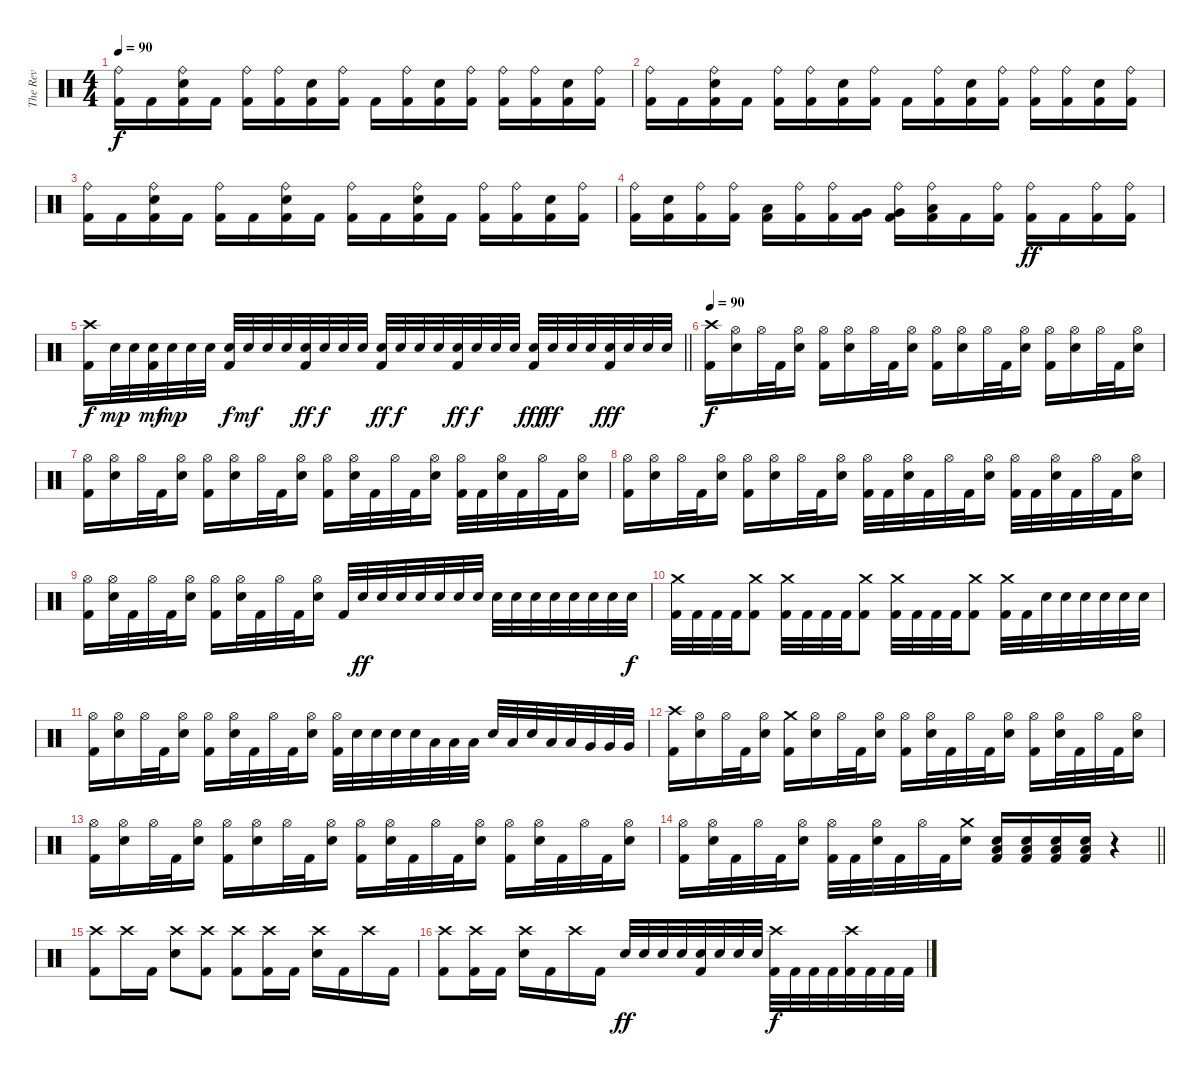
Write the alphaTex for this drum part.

\track ("The Rev" "The Rev") {instrument percussion}
\staff {score}
\articulation defaults
\ts (4 4)
\tempo 90
\clef neutral
\ks c
("Ride (bell)" "Kick (hit) 2").16{dy f} "Kick (hit) 2".16 ("Ride (bell)" "Electric Snare (hit)" "Kick (hit) 2").16 "Kick (hit) 2".16 ("Ride (bell)" "Kick (hit) 2").16 ("Ride (bell)" "Kick (hit) 2").16 ("Electric Snare (hit)" "Kick (hit) 2").16 ("Ride (bell)" "Kick (hit) 2").16 "Kick (hit) 2".16 ("Ride (bell)" "Kick (hit) 2").16 ("Electric Snare (hit)" "Kick (hit) 2").16 ("Ride (bell)" "Kick (hit) 2").16 ("Ride (bell)" "Kick (hit) 2").16 ("Ride (bell)" "Kick (hit) 2").16 ("Electric Snare (hit)" "Kick (hit) 2").16 ("Ride (bell)" "Kick (hit) 2").16 |
("Ride (bell)" "Kick (hit) 2").16 "Kick (hit) 2".16 ("Ride (bell)" "Electric Snare (hit)" "Kick (hit) 2").16 "Kick (hit) 2".16 ("Ride (bell)" "Kick (hit) 2").16 ("Ride (bell)" "Kick (hit) 2").16 ("Electric Snare (hit)" "Kick (hit) 2").16 ("Ride (bell)" "Kick (hit) 2").16 "Kick (hit) 2".16 ("Ride (bell)" "Kick (hit) 2").16 ("Electric Snare (hit)" "Kick (hit) 2").16 ("Ride (bell)" "Kick (hit) 2").16 ("Ride (bell)" "Kick (hit) 2").16 ("Ride (bell)" "Kick (hit) 2").16 ("Electric Snare (hit)" "Kick (hit) 2").16 ("Ride (bell)" "Kick (hit) 2").16 |
("Ride (bell)" "Kick (hit) 2").16 "Kick (hit) 2".16 ("Ride (bell)" "Electric Snare (hit)" "Kick (hit) 2").16 "Kick (hit) 2".16 ("Ride (bell)" "Kick (hit) 2").16 "Kick (hit) 2".16 ("Ride (bell)" "Electric Snare (hit)" "Kick (hit) 2").16 "Kick (hit) 2".16 ("Ride (bell)" "Kick (hit) 2").16 "Kick (hit) 2".16 ("Ride (bell)" "Electric Snare (hit)" "Kick (hit) 2").16 "Kick (hit) 2".16 ("Ride (bell)" "Kick (hit) 2").16 ("Ride (bell)" "Kick (hit) 2").16 ("Electric Snare (hit)" "Kick (hit) 2").16 ("Ride (bell)" "Kick (hit) 2").16 |
("Ride (bell)" "Kick (hit) 2").16 ("Electric Snare (hit)" "Kick (hit) 2").16 ("Ride (bell)" "Kick (hit) 2").16 ("Ride (bell)" "Kick (hit) 2").16 ("Low Tom (hit)" "Kick (hit) 2").16 ("Ride (bell)" "Kick (hit) 2").16 ("Ride (bell)" "Kick (hit) 2").16 ("Very Low Tom (hit)" "Kick (hit) 2").16 ("Ride (bell)" "Very Low Tom (hit)" "Kick (hit) 2").16 ("Ride (bell)" "Low Floor Tom (hit)" "Kick (hit) 2").16 "Kick (hit) 2".16 ("Ride (bell)" "Kick (hit) 2").16 ("Ride (bell)" "Kick (hit) 2").16{dy ff} "Kick (hit) 2".16 ("Ride (bell)" "Kick (hit) 2").16 ("Ride (bell)" "Kick (hit) 2").16 |
\barLineRight lightlight
("Crash high (hit)" "Kick (hit) 2").16{dy f} "Electric Snare (hit)".32{dy mp} "Electric Snare (hit)".32 ("Electric Snare (hit)" "Kick (hit) 2").32{dy mf} "Electric Snare (hit)".32{dy mp} "Electric Snare (hit)".32 "Electric Snare (hit)".32 ("Electric Snare (hit)" "Kick (hit) 2").32{dy f} "Electric Snare (hit)".32{dy mf} "Electric Snare (hit)".32 "Electric Snare (hit)".32 ("Electric Snare (hit)" "Kick (hit) 2").32{dy ff} "Electric Snare (hit)".32{dy f} "Electric Snare (hit)".32 "Electric Snare (hit)".32 ("Electric Snare (hit)" "Kick (hit) 2").32{dy ff} "Electric Snare (hit)".32{dy f} "Electric Snare (hit)".32 "Electric Snare (hit)".32 ("Electric Snare (hit)" "Kick (hit) 2").32{dy ff} "Electric Snare (hit)".32{dy f} "Electric Snare (hit)".32 "Electric Snare (hit)".32 ("Electric Snare (hit)" "Kick (hit) 2").32{dy fff} "Electric Snare (hit)".32{dy ff} "Electric Snare (hit)".32 "Electric Snare (hit)".32 ("Electric Snare (hit)" "Kick (hit) 2").32{dy fff} "Electric Snare (hit)".32 "Electric Snare (hit)".32 "Electric Snare (hit)".32 |
\tempo 90
("Crash high (hit)" "Kick (hit) 2").16{dy f} ("Hi-Hat (open)" "Electric Snare (hit)").16 "Hi-Hat (open)".32 "Kick (hit) 2".32 ("Hi-Hat (open)" "Electric Snare (hit)").16 ("Hi-Hat (open)" "Kick (hit) 2").16 ("Hi-Hat (open)" "Electric Snare (hit)").16 "Hi-Hat (open)".32 "Kick (hit) 2".32 ("Hi-Hat (open)" "Electric Snare (hit)").16 ("Hi-Hat (open)" "Kick (hit) 2").16 ("Hi-Hat (open)" "Electric Snare (hit)").16 "Hi-Hat (open)".32 "Kick (hit) 2".32 ("Hi-Hat (open)" "Electric Snare (hit)").16 ("Hi-Hat (open)" "Kick (hit) 2").16 ("Hi-Hat (open)" "Electric Snare (hit)").16 "Hi-Hat (open)".32 "Kick (hit) 2".32 ("Hi-Hat (open)" "Electric Snare (hit)").16 |
("Hi-Hat (open)" "Kick (hit) 2").16 ("Hi-Hat (open)" "Electric Snare (hit)").16 "Hi-Hat (open)".32 "Kick (hit) 2".32 ("Hi-Hat (open)" "Electric Snare (hit)").16 ("Hi-Hat (open)" "Kick (hit) 2").16 ("Hi-Hat (open)" "Electric Snare (hit)").16 "Hi-Hat (open)".32 "Kick (hit) 2".32 ("Hi-Hat (open)" "Electric Snare (hit)").16 ("Hi-Hat (open)" "Kick (hit) 2").16 ("Hi-Hat (open)" "Electric Snare (hit)").32 "Kick (hit) 2".32 "Hi-Hat (open)".32 "Kick (hit) 2".32 ("Hi-Hat (open)" "Electric Snare (hit)").16 ("Hi-Hat (open)" "Kick (hit) 2").32 "Kick (hit) 2".32 ("Hi-Hat (open)" "Electric Snare (hit)").32 "Kick (hit) 2".32 "Hi-Hat (open)".32 "Kick (hit) 2".32 ("Hi-Hat (open)" "Electric Snare (hit)").16 |
("Hi-Hat (open)" "Kick (hit) 2").16 ("Hi-Hat (open)" "Electric Snare (hit)").16 "Hi-Hat (open)".32 "Kick (hit) 2".32 ("Hi-Hat (open)" "Electric Snare (hit)").16 ("Hi-Hat (open)" "Kick (hit) 2").16 ("Hi-Hat (open)" "Electric Snare (hit)").16 "Hi-Hat (open)".32 "Kick (hit) 2".32 ("Hi-Hat (open)" "Electric Snare (hit)").16 ("Hi-Hat (open)" "Kick (hit) 2").32 "Kick (hit) 2".32 ("Hi-Hat (open)" "Electric Snare (hit)").32 "Kick (hit) 2".32 "Hi-Hat (open)".32 "Kick (hit) 2".32 ("Hi-Hat (open)" "Electric Snare (hit)").16 ("Hi-Hat (open)" "Kick (hit) 2").32 "Kick (hit) 2".32 ("Hi-Hat (open)" "Electric Snare (hit)").32 "Kick (hit) 2".32 "Hi-Hat (open)".32 "Kick (hit) 2".32 ("Hi-Hat (open)" "Electric Snare (hit)").16 |
("Hi-Hat (open)" "Kick (hit) 2").16 ("Hi-Hat (open)" "Electric Snare (hit)").32 "Kick (hit) 2".32 "Hi-Hat (open)".32 "Kick (hit) 2".32 ("Hi-Hat (open)" "Electric Snare (hit)").16 ("Hi-Hat (open)" "Kick (hit) 2").16 ("Hi-Hat (open)" "Electric Snare (hit)").32 "Kick (hit) 2".32 "Hi-Hat (open)".32 "Kick (hit) 2".32 ("Hi-Hat (open)" "Electric Snare (hit)").16 "Kick (hit) 2".32 "Electric Snare (hit)".32{dy ff} "Electric Snare (hit)".32 "Electric Snare (hit)".32 "Electric Snare (hit)".32 "Electric Snare (hit)".32 "Electric Snare (hit)".32 "Electric Snare (hit)".32 "Electric Snare (hit)".32 "Electric Snare (hit)".32 "Electric Snare (hit)".32 "Electric Snare (hit)".32 "Electric Snare (hit)".32 "Electric Snare (hit)".32 "Electric Snare (hit)".32 "Electric Snare (hit)".32{dy f} |
("Crash medium (hit)" "Kick (hit) 2").32 "Kick (hit) 2".32 "Kick (hit) 2".32 "Kick (hit) 2".32 ("Crash medium (hit)" "Kick (hit) 2").8 ("Crash medium (hit)" "Kick (hit) 2").32 "Kick (hit) 2".32 "Kick (hit) 2".32 "Kick (hit) 2".32 ("Crash medium (hit)" "Kick (hit) 2").8 ("Crash medium (hit)" "Kick (hit) 2").32 "Kick (hit) 2".32 "Kick (hit) 2".32 "Kick (hit) 2".32 ("Crash medium (hit)" "Kick (hit) 2").8 ("Crash medium (hit)" "Kick (hit) 2").32 "Kick (hit) 2".32 "Electric Snare (hit)".32 "Electric Snare (hit)".32 "Electric Snare (hit)".32 "Electric Snare (hit)".32 "Electric Snare (hit)".32 "Electric Snare (hit)".32 |
("Hi-Hat (open)" "Kick (hit) 2").16 ("Hi-Hat (open)" "Electric Snare (hit)").16 "Hi-Hat (open)".32 "Kick (hit) 2".32 ("Hi-Hat (open)" "Electric Snare (hit)").16 ("Hi-Hat (open)" "Kick (hit) 2").16 ("Hi-Hat (open)" "Electric Snare (hit)").32 "Kick (hit) 2".32 "Hi-Hat (open)".32 "Kick (hit) 2".32 ("Hi-Hat (open)" "Electric Snare (hit)").16 ("Hi-Hat (open)" "Kick (hit) 2").32 "Electric Snare (hit)".32 "Electric Snare (hit)".32 "Electric Snare (hit)".32 "Electric Snare (hit)".32 "Low Tom (hit)".32 "Low Tom (hit)".32 "Low Tom (hit)".32 "Electric Snare (hit)".32 "Low Tom (hit)".32 "Electric Snare (hit)".32 "Low Tom (hit)".32 "Low Tom (hit)".32 "Very Low Tom (hit)".32 "Very Low Tom (hit)".32 "Very Low Tom (hit)".32 |
("Crash high (hit)" "Kick (hit) 2").16 ("Hi-Hat (open)" "Electric Snare (hit)").16 "Hi-Hat (open)".32 "Kick (hit) 2".32 ("Hi-Hat (open)" "Electric Snare (hit)").16 ("Crash medium (hit)" "Kick (hit) 2").16 ("Hi-Hat (open)" "Electric Snare (hit)").16 "Hi-Hat (open)".32 "Kick (hit) 2".32 ("Hi-Hat (open)" "Electric Snare (hit)").16 ("Hi-Hat (open)" "Kick (hit) 2").16 ("Hi-Hat (open)" "Electric Snare (hit)").32 "Kick (hit) 2".32 "Hi-Hat (open)".32 "Kick (hit) 2".32 ("Hi-Hat (open)" "Electric Snare (hit)").16 ("Hi-Hat (open)" "Kick (hit) 2").16 ("Hi-Hat (open)" "Electric Snare (hit)").32 "Kick (hit) 2".32 "Hi-Hat (open)".32 "Kick (hit) 2".32 ("Hi-Hat (open)" "Electric Snare (hit)").16 |
("Hi-Hat (open)" "Kick (hit) 2").16 ("Hi-Hat (open)" "Electric Snare (hit)").16 "Hi-Hat (open)".32 "Kick (hit) 2".32 ("Hi-Hat (open)" "Electric Snare (hit)").16 ("Hi-Hat (open)" "Kick (hit) 2").16 ("Hi-Hat (open)" "Electric Snare (hit)").16 "Hi-Hat (open)".32 "Kick (hit) 2".32 ("Hi-Hat (open)" "Electric Snare (hit)").16 ("Hi-Hat (open)" "Kick (hit) 2").16 ("Hi-Hat (open)" "Electric Snare (hit)").32 "Kick (hit) 2".32 "Hi-Hat (open)".32 "Kick (hit) 2".32 ("Hi-Hat (open)" "Electric Snare (hit)").16 ("Hi-Hat (open)" "Kick (hit) 2").16 ("Hi-Hat (open)" "Electric Snare (hit)").32 "Kick (hit) 2".32 "Hi-Hat (open)".32 "Kick (hit) 2".32 ("Hi-Hat (open)" "Electric Snare (hit)").16 |
\barLineRight lightlight
("Hi-Hat (open)" "Kick (hit) 2").16 ("Hi-Hat (open)" "Electric Snare (hit)").32 "Kick (hit) 2".32 "Hi-Hat (open)".32 "Kick (hit) 2".32 ("Hi-Hat (open)" "Electric Snare (hit)").16 ("Hi-Hat (open)" "Kick (hit) 2").32 "Kick (hit) 2".32 ("Hi-Hat (open)" "Electric Snare (hit)").32 "Kick (hit) 2".32 "Hi-Hat (open)".32 "Kick (hit) 2".32 ("Crash medium (hit)" "Electric Snare (hit)").16 ("Electric Snare (hit)" "Low Floor Tom (hit)" "Kick (hit) 2").16 ("Electric Snare (hit)" "Low Floor Tom (hit)" "Kick (hit) 2").16 ("Electric Snare (hit)" "Low Floor Tom (hit)" "Kick (hit) 2").16 ("Electric Snare (hit)" "Low Floor Tom (hit)" "Kick (hit) 2").16 r.4 |
("Crash high (hit)" "Kick (hit) 2").8 "Crash high (hit)".16 "Kick (hit) 2".16 ("Crash high (hit)" "Electric Snare (hit)").8 ("Crash high (hit)" "Kick (hit) 2").8 ("Crash high (hit)" "Kick (hit) 2").8 ("Crash high (hit)" "Kick (hit) 2").16 "Kick (hit) 2".16 ("Crash high (hit)" "Electric Snare (hit)").16 "Kick (hit) 2".16 "Crash high (hit)".16 "Kick (hit) 2".16 |
("Crash high (hit)" "Kick (hit) 2").8 ("Crash high (hit)" "Kick (hit) 2").16 "Kick (hit) 2".16 ("Crash high (hit)" "Electric Snare (hit)").16 "Kick (hit) 2".16 "Crash high (hit)".16 "Kick (hit) 2".16 "Electric Snare (hit)".32{dy ff} "Electric Snare (hit)".32 "Electric Snare (hit)".32 "Electric Snare (hit)".32 ("Electric Snare (hit)" "Kick (hit) 2").32 "Electric Snare (hit)".32 "Electric Snare (hit)".32 "Electric Snare (hit)".32 ("Crash high (hit)" "Kick (hit) 2").32{dy f} "Kick (hit) 2".32 "Kick (hit) 2".32 "Kick (hit) 2".32 ("Crash high (hit)" "Kick (hit) 2").32 "Kick (hit) 2".32 "Kick (hit) 2".32 "Kick (hit) 2".32
